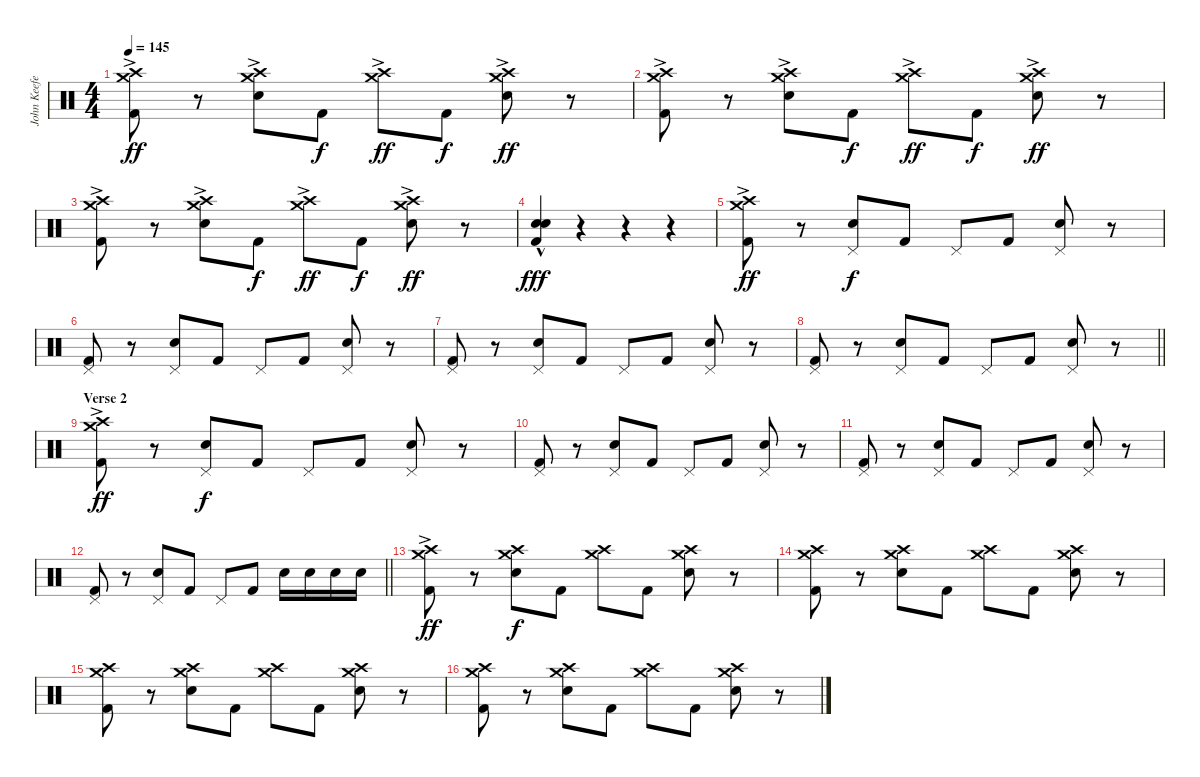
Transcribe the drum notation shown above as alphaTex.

\track ("John Keefe (Percussion)" "John Keefe") {instrument percussion}
\staff {score}
\articulation defaults
\ts (4 4)
\tempo 145
\clef neutral
\ks c
("Crash high (hit)"{ac} "Crash medium (hit)"{ac} "Kick (hit) 2").8{dy ff} r.8 ("Crash high (hit)"{ac} "Crash medium (hit)"{ac} "Electric Snare (hit)").8 "Kick (hit) 2".8{dy f} ("Crash high (hit)"{ac} "Crash medium (hit)"{ac}).8{dy ff} "Kick (hit) 2".8{dy f} ("Crash high (hit)"{ac} "Crash medium (hit)"{ac} "Electric Snare (hit)").8{dy ff} r.8 |
("Crash high (hit)"{ac} "Crash medium (hit)"{ac} "Kick (hit) 2").8 r.8 ("Crash high (hit)"{ac} "Crash medium (hit)"{ac} "Electric Snare (hit)").8 "Kick (hit) 2".8{dy f} ("Crash high (hit)"{ac} "Crash medium (hit)"{ac}).8{dy ff} "Kick (hit) 2".8{dy f} ("Crash high (hit)"{ac} "Crash medium (hit)"{ac} "Electric Snare (hit)").8{dy ff} r.8 |
("Crash high (hit)"{ac} "Crash medium (hit)"{ac} "Kick (hit) 2").8 r.8 ("Crash high (hit)"{ac} "Crash medium (hit)"{ac} "Electric Snare (hit)").8 "Kick (hit) 2".8{dy f} ("Crash high (hit)"{ac} "Crash medium (hit)"{ac}).8{dy ff} "Kick (hit) 2".8{dy f} ("Crash high (hit)"{ac} "Crash medium (hit)"{ac} "Electric Snare (hit)").8{dy ff} r.8 |
("Snare (hit) 2" "Kick (hit) 2" "Electric Snare (hit)"{hac}).4{dy fff} r.4 r.4 r.4 |
("Crash high (hit)"{ac} "Crash medium (hit)"{ac} "Kick (hit) 2"{ac}).8{dy ff} r.8 ("Pedal Hi-Hat (hit)" "Electric Snare (hit)").8{dy f} "Kick (hit) 2".8 "Pedal Hi-Hat (hit)".8 "Kick (hit) 2".8 ("Pedal Hi-Hat (hit)" "Electric Snare (hit)").8 r.8 |
("Pedal Hi-Hat (hit)" "Kick (hit) 2").8 r.8 ("Pedal Hi-Hat (hit)" "Electric Snare (hit)").8 "Kick (hit) 2".8 "Pedal Hi-Hat (hit)".8 "Kick (hit) 2".8 ("Pedal Hi-Hat (hit)" "Electric Snare (hit)").8 r.8 |
("Pedal Hi-Hat (hit)" "Kick (hit) 2").8 r.8 ("Pedal Hi-Hat (hit)" "Electric Snare (hit)").8 "Kick (hit) 2".8 "Pedal Hi-Hat (hit)".8 "Kick (hit) 2".8 ("Pedal Hi-Hat (hit)" "Electric Snare (hit)").8 r.8 |
\barLineRight lightlight
("Pedal Hi-Hat (hit)" "Kick (hit) 2").8 r.8 ("Pedal Hi-Hat (hit)" "Electric Snare (hit)").8 "Kick (hit) 2".8 "Pedal Hi-Hat (hit)".8 "Kick (hit) 2".8 ("Pedal Hi-Hat (hit)" "Electric Snare (hit)").8 r.8 |
\section ("" "Verse 2")
("Crash high (hit)"{ac} "Crash medium (hit)"{ac} "Kick (hit) 2"{ac}).8{dy ff} r.8 ("Pedal Hi-Hat (hit)" "Electric Snare (hit)").8{dy f} "Kick (hit) 2".8 "Pedal Hi-Hat (hit)".8 "Kick (hit) 2".8 ("Pedal Hi-Hat (hit)" "Electric Snare (hit)").8 r.8 |
("Pedal Hi-Hat (hit)" "Kick (hit) 2").8 r.8 ("Pedal Hi-Hat (hit)" "Electric Snare (hit)").8 "Kick (hit) 2".8 "Pedal Hi-Hat (hit)".8 "Kick (hit) 2".8 ("Pedal Hi-Hat (hit)" "Electric Snare (hit)").8 r.8 |
("Pedal Hi-Hat (hit)" "Kick (hit) 2").8 r.8 ("Pedal Hi-Hat (hit)" "Electric Snare (hit)").8 "Kick (hit) 2".8 "Pedal Hi-Hat (hit)".8 "Kick (hit) 2".8 ("Pedal Hi-Hat (hit)" "Electric Snare (hit)").8 r.8 |
\barLineRight lightlight
("Pedal Hi-Hat (hit)" "Kick (hit) 2").8 r.8 ("Pedal Hi-Hat (hit)" "Electric Snare (hit)").8 "Kick (hit) 2".8 "Pedal Hi-Hat (hit)".8 "Kick (hit) 2".8 "Electric Snare (hit)".16 "Electric Snare (hit)".16 "Electric Snare (hit)".16 "Electric Snare (hit)".16 |
("Crash high (hit)"{ac} "Crash medium (hit)"{ac} "Kick (hit) 2").8{dy ff} r.8 ("Crash high (hit)" "Crash medium (hit)" "Electric Snare (hit)").8{dy f} "Kick (hit) 2".8 ("Crash high (hit)" "Crash medium (hit)").8 "Kick (hit) 2".8 ("Crash high (hit)" "Crash medium (hit)" "Electric Snare (hit)").8 r.8 |
("Crash high (hit)" "Crash medium (hit)" "Kick (hit) 2").8 r.8 ("Crash high (hit)" "Crash medium (hit)" "Electric Snare (hit)").8 "Kick (hit) 2".8 ("Crash high (hit)" "Crash medium (hit)").8 "Kick (hit) 2".8 ("Crash high (hit)" "Crash medium (hit)" "Electric Snare (hit)").8 r.8 |
("Crash high (hit)" "Crash medium (hit)" "Kick (hit) 2").8 r.8 ("Crash high (hit)" "Crash medium (hit)" "Electric Snare (hit)").8 "Kick (hit) 2".8 ("Crash high (hit)" "Crash medium (hit)").8 "Kick (hit) 2".8 ("Crash high (hit)" "Crash medium (hit)" "Electric Snare (hit)").8 r.8 |
("Crash high (hit)" "Crash medium (hit)" "Kick (hit) 2").8 r.8 ("Crash high (hit)" "Crash medium (hit)" "Electric Snare (hit)").8 "Kick (hit) 2".8 ("Crash high (hit)" "Crash medium (hit)").8 "Kick (hit) 2".8 ("Crash high (hit)" "Crash medium (hit)" "Electric Snare (hit)").8 r.8
